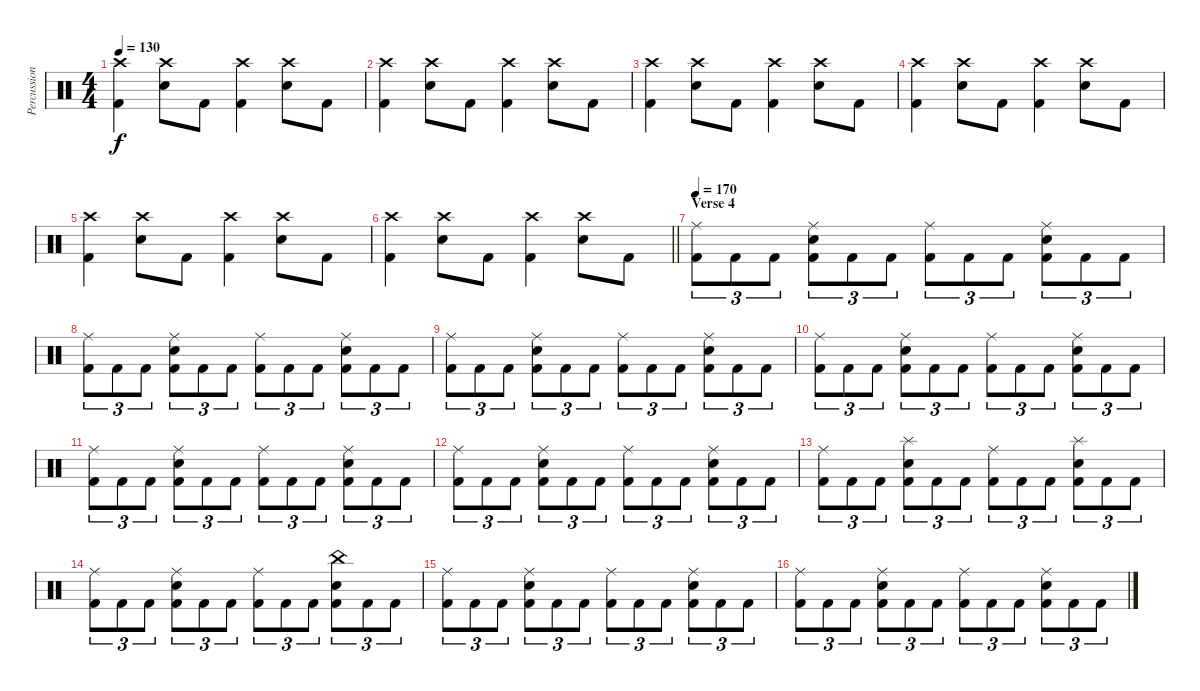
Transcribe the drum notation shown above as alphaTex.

\track ("Percussion" "Percussion") {instrument percussion}
\staff {score}
\articulation defaults
\ts (4 4)
\tempo 130
\clef neutral
\ks c
("Crash high (hit)" "Kick (hit) 2").4{dy f} ("Crash high (hit)" "Electric Snare (hit)").8 "Kick (hit) 2".8 ("Crash high (hit)" "Kick (hit) 2").4 ("Crash high (hit)" "Electric Snare (hit)").8 "Kick (hit) 2".8 |
("Crash high (hit)" "Kick (hit) 2").4 ("Crash high (hit)" "Electric Snare (hit)").8 "Kick (hit) 2".8 ("Crash high (hit)" "Kick (hit) 2").4 ("Crash high (hit)" "Electric Snare (hit)").8 "Kick (hit) 2".8 |
("Crash high (hit)" "Kick (hit) 2").4 ("Crash high (hit)" "Electric Snare (hit)").8 "Kick (hit) 2".8 ("Crash high (hit)" "Kick (hit) 2").4 ("Crash high (hit)" "Electric Snare (hit)").8 "Kick (hit) 2".8 |
("Crash high (hit)" "Kick (hit) 2").4 ("Crash high (hit)" "Electric Snare (hit)").8 "Kick (hit) 2".8 ("Crash high (hit)" "Kick (hit) 2").4 ("Crash high (hit)" "Electric Snare (hit)").8 "Kick (hit) 2".8 |
("Crash high (hit)" "Kick (hit) 2").4 ("Crash high (hit)" "Electric Snare (hit)").8 "Kick (hit) 2".8 ("Crash high (hit)" "Kick (hit) 2").4 ("Crash high (hit)" "Electric Snare (hit)").8 "Kick (hit) 2".8 |
\barLineRight lightlight
("Crash high (hit)" "Kick (hit) 2").4 ("Crash high (hit)" "Electric Snare (hit)").8 "Kick (hit) 2".8 ("Crash high (hit)" "Kick (hit) 2").4 ("Crash high (hit)" "Electric Snare (hit)").8 "Kick (hit) 2".8 |
\section ("" "Verse 4")
\tempo 170
("Ride (middle)" "Kick (hit) 2").8{tu (3 2)} "Kick (hit) 2".8{tu (3 2)} "Kick (hit) 2".8{tu (3 2)} ("Ride (middle)" "Electric Snare (hit)" "Kick (hit) 2").8{tu (3 2)} "Kick (hit) 2".8{tu (3 2)} "Kick (hit) 2".8{tu (3 2)} ("Ride (middle)" "Kick (hit) 2").8{tu (3 2)} "Kick (hit) 2".8{tu (3 2)} "Kick (hit) 2".8{tu (3 2)} ("Ride (middle)" "Electric Snare (hit)" "Kick (hit) 2").8{tu (3 2)} "Kick (hit) 2".8{tu (3 2)} "Kick (hit) 2".8{tu (3 2)} |
("Ride (middle)" "Kick (hit) 2").8{tu (3 2)} "Kick (hit) 2".8{tu (3 2)} "Kick (hit) 2".8{tu (3 2)} ("Ride (middle)" "Electric Snare (hit)" "Kick (hit) 2").8{tu (3 2)} "Kick (hit) 2".8{tu (3 2)} "Kick (hit) 2".8{tu (3 2)} ("Ride (middle)" "Kick (hit) 2").8{tu (3 2)} "Kick (hit) 2".8{tu (3 2)} "Kick (hit) 2".8{tu (3 2)} ("Ride (middle)" "Electric Snare (hit)" "Kick (hit) 2").8{tu (3 2)} "Kick (hit) 2".8{tu (3 2)} "Kick (hit) 2".8{tu (3 2)} |
("Ride (middle)" "Kick (hit) 2").8{tu (3 2)} "Kick (hit) 2".8{tu (3 2)} "Kick (hit) 2".8{tu (3 2)} ("Ride (middle)" "Electric Snare (hit)" "Kick (hit) 2").8{tu (3 2)} "Kick (hit) 2".8{tu (3 2)} "Kick (hit) 2".8{tu (3 2)} ("Ride (middle)" "Kick (hit) 2").8{tu (3 2)} "Kick (hit) 2".8{tu (3 2)} "Kick (hit) 2".8{tu (3 2)} ("Ride (middle)" "Electric Snare (hit)" "Kick (hit) 2").8{tu (3 2)} "Kick (hit) 2".8{tu (3 2)} "Kick (hit) 2".8{tu (3 2)} |
("Ride (middle)" "Kick (hit) 2").8{tu (3 2)} "Kick (hit) 2".8{tu (3 2)} "Kick (hit) 2".8{tu (3 2)} ("Ride (middle)" "Electric Snare (hit)" "Kick (hit) 2").8{tu (3 2)} "Kick (hit) 2".8{tu (3 2)} "Kick (hit) 2".8{tu (3 2)} ("Ride (middle)" "Kick (hit) 2").8{tu (3 2)} "Kick (hit) 2".8{tu (3 2)} "Kick (hit) 2".8{tu (3 2)} ("Ride (middle)" "Electric Snare (hit)" "Kick (hit) 2").8{tu (3 2)} "Kick (hit) 2".8{tu (3 2)} "Kick (hit) 2".8{tu (3 2)} |
("Ride (middle)" "Kick (hit) 2").8{tu (3 2)} "Kick (hit) 2".8{tu (3 2)} "Kick (hit) 2".8{tu (3 2)} ("Ride (middle)" "Electric Snare (hit)" "Kick (hit) 2").8{tu (3 2)} "Kick (hit) 2".8{tu (3 2)} "Kick (hit) 2".8{tu (3 2)} ("Ride (middle)" "Kick (hit) 2").8{tu (3 2)} "Kick (hit) 2".8{tu (3 2)} "Kick (hit) 2".8{tu (3 2)} ("Ride (middle)" "Electric Snare (hit)" "Kick (hit) 2").8{tu (3 2)} "Kick (hit) 2".8{tu (3 2)} "Kick (hit) 2".8{tu (3 2)} |
("Ride (middle)" "Kick (hit) 2").8{tu (3 2)} "Kick (hit) 2".8{tu (3 2)} "Kick (hit) 2".8{tu (3 2)} ("Ride (middle)" "Electric Snare (hit)" "Kick (hit) 2").8{tu (3 2)} "Kick (hit) 2".8{tu (3 2)} "Kick (hit) 2".8{tu (3 2)} ("Ride (middle)" "Kick (hit) 2").8{tu (3 2)} "Kick (hit) 2".8{tu (3 2)} "Kick (hit) 2".8{tu (3 2)} ("Ride (middle)" "Electric Snare (hit)" "Kick (hit) 2").8{tu (3 2)} "Kick (hit) 2".8{tu (3 2)} "Kick (hit) 2".8{tu (3 2)} |
("Ride (middle)" "Kick (hit) 2").8{tu (3 2)} "Kick (hit) 2".8{tu (3 2)} "Kick (hit) 2".8{tu (3 2)} ("Splash (hit)" "Electric Snare (hit)" "Kick (hit) 2").8{tu (3 2)} "Kick (hit) 2".8{tu (3 2)} "Kick (hit) 2".8{tu (3 2)} ("Ride (middle)" "Kick (hit) 2").8{tu (3 2)} "Kick (hit) 2".8{tu (3 2)} "Kick (hit) 2".8{tu (3 2)} ("Splash (hit)" "Electric Snare (hit)" "Kick (hit) 2").8{tu (3 2)} "Kick (hit) 2".8{tu (3 2)} "Kick (hit) 2".8{tu (3 2)} |
("Ride (middle)" "Kick (hit) 2").8{tu (3 2)} "Kick (hit) 2".8{tu (3 2)} "Kick (hit) 2".8{tu (3 2)} ("Ride (middle)" "Electric Snare (hit)" "Kick (hit) 2").8{tu (3 2)} "Kick (hit) 2".8{tu (3 2)} "Kick (hit) 2".8{tu (3 2)} ("Ride (middle)" "Kick (hit) 2").8{tu (3 2)} "Kick (hit) 2".8{tu (3 2)} "Kick (hit) 2".8{tu (3 2)} ("China (hit)" "Electric Snare (hit)" "Kick (hit) 2").8{tu (3 2)} "Kick (hit) 2".8{tu (3 2)} "Kick (hit) 2".8{tu (3 2)} |
("Ride (middle)" "Kick (hit) 2").8{tu (3 2)} "Kick (hit) 2".8{tu (3 2)} "Kick (hit) 2".8{tu (3 2)} ("Ride (middle)" "Electric Snare (hit)" "Kick (hit) 2").8{tu (3 2)} "Kick (hit) 2".8{tu (3 2)} "Kick (hit) 2".8{tu (3 2)} ("Ride (middle)" "Kick (hit) 2").8{tu (3 2)} "Kick (hit) 2".8{tu (3 2)} "Kick (hit) 2".8{tu (3 2)} ("Ride (middle)" "Electric Snare (hit)" "Kick (hit) 2").8{tu (3 2)} "Kick (hit) 2".8{tu (3 2)} "Kick (hit) 2".8{tu (3 2)} |
("Ride (middle)" "Kick (hit) 2").8{tu (3 2)} "Kick (hit) 2".8{tu (3 2)} "Kick (hit) 2".8{tu (3 2)} ("Ride (middle)" "Electric Snare (hit)" "Kick (hit) 2").8{tu (3 2)} "Kick (hit) 2".8{tu (3 2)} "Kick (hit) 2".8{tu (3 2)} ("Ride (middle)" "Kick (hit) 2").8{tu (3 2)} "Kick (hit) 2".8{tu (3 2)} "Kick (hit) 2".8{tu (3 2)} ("Ride (middle)" "Electric Snare (hit)" "Kick (hit) 2").8{tu (3 2)} "Kick (hit) 2".8{tu (3 2)} "Kick (hit) 2".8{tu (3 2)}
